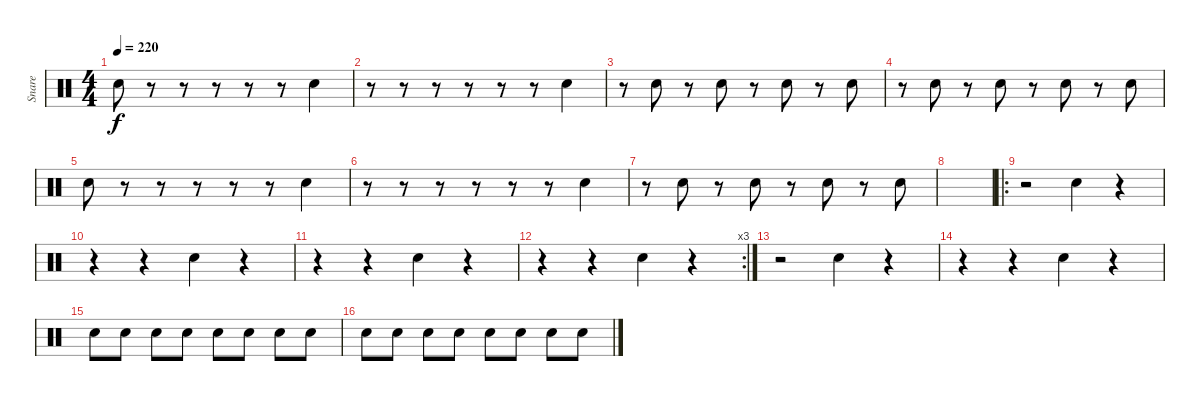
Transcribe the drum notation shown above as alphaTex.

\track ("Snare" "Snare") {instrument percussion}
\staff {score}
\articulation defaults
\ts (4 4)
\tempo 220
\clef neutral
\ks c "Electric Snare (hit)".8{dy f}
r.8 r.8 r.8 r.8 r.8 "Electric Snare (hit)".4 |
r.8 r.8 r.8 r.8 r.8 r.8 "Electric Snare (hit)".4 |
r.8 "Electric Snare (hit)".8 r.8 "Electric Snare (hit)".8 r.8 "Electric Snare (hit)".8 r.8 "Electric Snare (hit)".8 |
r.8 "Electric Snare (hit)".8 r.8 "Electric Snare (hit)".8 r.8 "Electric Snare (hit)".8 r.8 "Electric Snare (hit)".8 |
"Electric Snare (hit)".8 r.8 r.8 r.8 r.8 r.8 "Electric Snare (hit)".4 |
r.8 r.8 r.8 r.8 r.8 r.8 "Electric Snare (hit)".4 |
r.8 "Electric Snare (hit)".8 r.8 "Electric Snare (hit)".8 r.8 "Electric Snare (hit)".8 r.8 "Electric Snare (hit)".8 |
|
\ro
r.2 "Electric Snare (hit)".4 r.4 |
r.4 r.4 "Electric Snare (hit)".4 r.4 |
r.4 r.4 "Electric Snare (hit)".4 r.4 |
\rc 3
r.4 r.4 "Electric Snare (hit)".4 r.4 |
r.2 "Electric Snare (hit)".4 r.4 |
r.4 r.4 "Electric Snare (hit)".4 r.4 |
"Electric Snare (hit)".8 "Electric Snare (hit)".8 "Electric Snare (hit)".8 "Electric Snare (hit)".8 "Electric Snare (hit)".8 "Electric Snare (hit)".8 "Electric Snare (hit)".8 "Electric Snare (hit)".8 |
"Electric Snare (hit)".8 "Electric Snare (hit)".8 "Electric Snare (hit)".8 "Electric Snare (hit)".8 "Electric Snare (hit)".8 "Electric Snare (hit)".8 "Electric Snare (hit)".8 "Electric Snare (hit)".8
